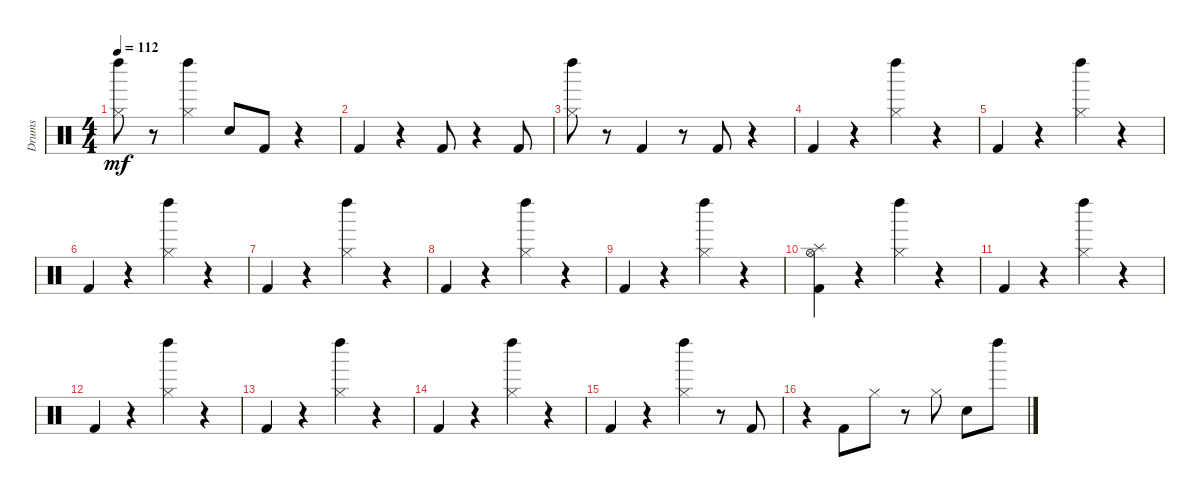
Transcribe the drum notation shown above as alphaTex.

\track ("Drums" "Drums") {instrument percussion}
\staff {score}
\articulation defaults
\ts (4 4)
\tempo 112
\clef neutral
\ks c
("Left Maraca (hit)" "Hi-Hat (closed)").8{dy mf} r.8 ("Left Maraca (hit)" "Hi-Hat (closed)").4 "Snare (hit) 2".8 "Kick (hit) 2".8 r.4 |
"Kick (hit) 2".4 r.4 "Kick (hit) 2".8 r.4 "Kick (hit) 2".8 |
("Left Maraca (hit)" "Hi-Hat (closed)").8 r.8 "Kick (hit) 2".4 r.8 "Kick (hit) 2".8 r.4 |
"Kick (hit) 2".4 r.4 ("Hi-Hat (closed)" "Left Maraca (hit)").4 r.4 |
"Kick (hit) 2".4 r.4 ("Hi-Hat (closed)" "Left Maraca (hit)").4 r.4 |
"Kick (hit) 2".4 r.4 ("Hi-Hat (closed)" "Left Maraca (hit)").4 r.4 |
"Kick (hit) 2".4 r.4 ("Hi-Hat (closed)" "Left Maraca (hit)").4 r.4 |
"Kick (hit) 2".4 r.4 ("Hi-Hat (closed)" "Left Maraca (hit)").4 r.4 |
"Kick (hit) 2".4 r.4 ("Hi-Hat (closed)" "Left Maraca (hit)").4 r.4 |
("Kick (hit) 2" "Hi-Hat (open)" "Splash (hit)").4 r.4 ("Hi-Hat (closed)" "Left Maraca (hit)").4 r.4 |
"Kick (hit) 2".4 r.4 ("Hi-Hat (closed)" "Left Maraca (hit)").4 r.4 |
"Kick (hit) 2".4 r.4 ("Hi-Hat (closed)" "Left Maraca (hit)").4 r.4 |
"Kick (hit) 2".4 r.4 ("Hi-Hat (closed)" "Left Maraca (hit)").4 r.4 |
"Kick (hit) 2".4 r.4 ("Hi-Hat (closed)" "Left Maraca (hit)").4 r.4 |
"Kick (hit) 2".4 r.4 ("Hi-Hat (closed)" "Left Maraca (hit)").4 r.8 "Kick (hit) 2".8 |
r.4 "Kick (hit) 2".8 "Hi-Hat (closed)".8 r.8 "Hi-Hat (closed)".8 "Electric Snare (hit)".8 "Left Maraca (hit)".8
